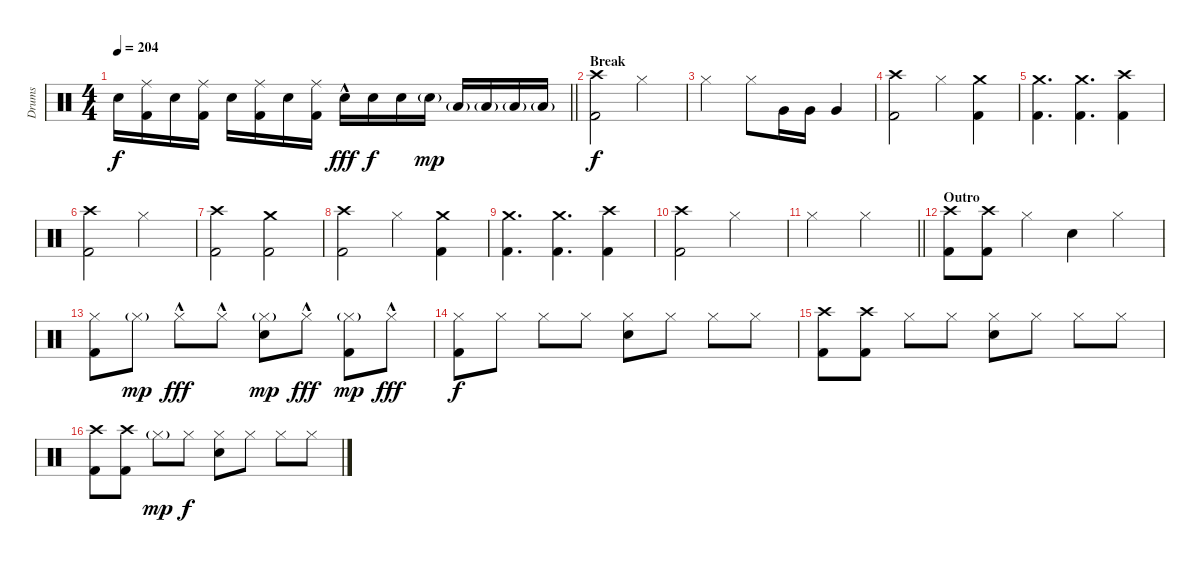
\track ("Drums" "Drums") {instrument percussion}
\staff {score}
\articulation defaults
\ts (4 4)
\tempo 204
\clef neutral
\barLineRight lightlight
\ks c "Snare (hit) 2".16{dy f}
("Ride (middle)" "Kick (hit) 2").16 "Snare (hit) 2".16 ("Ride (middle)" "Kick (hit) 2").16 "Snare (hit) 2".16 ("Ride (middle)" "Kick (hit) 2").16 "Snare (hit) 2".16 ("Ride (middle)" "Kick (hit) 2").16 "Snare (hit) 2"{hac}.16{dy fff} "Snare (hit) 2".16{dy f} "Snare (hit) 2".16 "Snare (hit) 2"{g}.16{dy mp} "Low Floor Tom (hit)"{g}.16 "Low Floor Tom (hit)"{g}.16 "Low Floor Tom (hit)"{g}.16 "Low Floor Tom (hit)"{g}.16 |
\section ("" "Break")
("Crash high (hit)" "Kick (hit) 2").2{dy f} "Hi-Hat (closed)".2 |
"Hi-Hat (closed)".2 "Hi-Hat (closed)".8 "Very Low Tom (hit)".16 "Very Low Tom (hit)".16 "Very Low Tom (hit)".4 |
("Crash high (hit)" "Kick (hit) 2").2 "Hi-Hat (closed)".4 ("Crash medium (hit)" "Kick (hit) 2").4 |
("Crash medium (hit)" "Kick (hit) 2").4{d} ("Crash medium (hit)" "Kick (hit) 2").4{d} ("Crash high (hit)" "Kick (hit) 2").4 |
("Crash high (hit)" "Kick (hit) 2").2 "Hi-Hat (closed)".2 |
("Crash high (hit)" "Kick (hit) 2").2 ("Crash medium (hit)" "Kick (hit) 2").2 |
("Crash high (hit)" "Kick (hit) 2").2 "Hi-Hat (closed)".4 ("Crash medium (hit)" "Kick (hit) 2").4 |
("Crash medium (hit)" "Kick (hit) 2").4{d} ("Crash medium (hit)" "Kick (hit) 2").4{d} ("Crash high (hit)" "Kick (hit) 2").4 |
("Crash high (hit)" "Kick (hit) 2").2 "Hi-Hat (closed)".2 |
\barLineRight lightlight "Hi-Hat (closed)".2 "Hi-Hat (closed)".2
|
\section ("" "Outro")
("Crash high (hit)" "Kick (hit) 2").8 ("Crash high (hit)" "Kick (hit) 2").8 "Hi-Hat (closed)".4 "Snare (hit) 2".4 "Hi-Hat (closed)".4 |
("Hi-Hat (closed)" "Kick (hit) 2").8 "Hi-Hat (closed)"{g}.8{dy mp} "Hi-Hat (closed)"{hac}.8{dy fff} "Hi-Hat (closed)"{hac}.8 ("Hi-Hat (closed)"{g} "Snare (hit) 2").8{dy mp} "Hi-Hat (closed)"{hac}.8{dy fff} ("Hi-Hat (closed)"{g} "Kick (hit) 2").8{dy mp} "Hi-Hat (closed)"{hac}.8{dy fff} |
("Hi-Hat (closed)" "Kick (hit) 2").8{dy f} "Hi-Hat (closed)".8 "Hi-Hat (closed)".8 "Hi-Hat (closed)".8 ("Hi-Hat (closed)" "Snare (hit) 2").8 "Hi-Hat (closed)".8 "Hi-Hat (closed)".8 "Hi-Hat (closed)".8 |
("Crash high (hit)" "Kick (hit) 2").8 ("Crash high (hit)" "Kick (hit) 2").8 "Hi-Hat (closed)".8 "Hi-Hat (closed)".8 ("Hi-Hat (closed)" "Snare (hit) 2").8 "Hi-Hat (closed)".8 "Hi-Hat (closed)".8 "Hi-Hat (closed)".8 |
("Crash high (hit)" "Kick (hit) 2").8 ("Crash high (hit)" "Kick (hit) 2").8 "Hi-Hat (closed)"{g}.8{dy mp} "Hi-Hat (closed)".8{dy f} ("Hi-Hat (closed)" "Snare (hit) 2").8 "Hi-Hat (closed)".8 "Hi-Hat (closed)".8 "Hi-Hat (closed)".8
